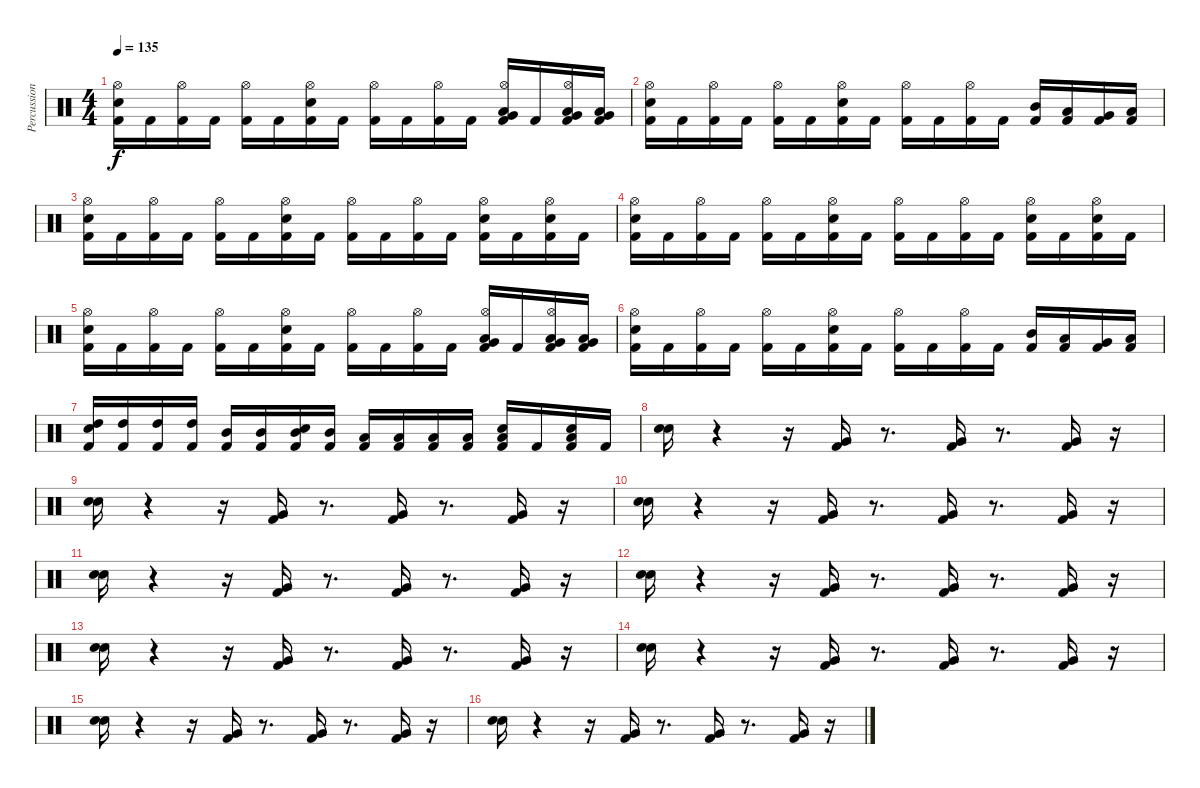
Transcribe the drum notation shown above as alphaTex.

\track ("Percussion" "Percussion") {instrument percussion}
\staff {score}
\articulation defaults
\ts (4 4)
\tempo 135
\clef neutral
\ks c
("Kick (hit) 2" "Electric Snare (hit)" "Hi-Hat (open)").16{dy f} "Kick (hit) 2".16 ("Kick (hit) 2" "Hi-Hat (open)").16 "Kick (hit) 2".16 ("Kick (hit) 2" "Hi-Hat (open)").16 "Kick (hit) 2".16 ("Kick (hit) 2" "Electric Snare (hit)" "Hi-Hat (open)").16 "Kick (hit) 2".16 ("Kick (hit) 2" "Hi-Hat (open)").16 "Kick (hit) 2".16 ("Kick (hit) 2" "Hi-Hat (open)").16 "Kick (hit) 2".16 ("Kick (hit) 2" "Low Floor Tom (hit)" "Very Low Tom (hit)" "Hi-Hat (open)").16 "Kick (hit) 2".16 ("Kick (hit) 2" "Low Floor Tom (hit)" "Very Low Tom (hit)" "Hi-Hat (open)").16 ("Kick (hit) 2" "Low Floor Tom (hit)" "Very Low Tom (hit)").16 |
("Kick (hit) 2" "Electric Snare (hit)" "Hi-Hat (open)").16 "Kick (hit) 2".16 ("Kick (hit) 2" "Hi-Hat (open)").16 "Kick (hit) 2".16 ("Kick (hit) 2" "Hi-Hat (open)").16 "Kick (hit) 2".16 ("Kick (hit) 2" "Electric Snare (hit)" "Hi-Hat (open)").16 "Kick (hit) 2".16 ("Kick (hit) 2" "Hi-Hat (open)").16 "Kick (hit) 2".16 ("Kick (hit) 2" "Hi-Hat (open)").16 "Kick (hit) 2".16 ("Kick (hit) 2" "Mid Tom (hit)").16 ("Kick (hit) 2" "Low Tom (hit)").16 ("Kick (hit) 2" "Very Low Tom (hit)").16 ("Kick (hit) 2" "Low Floor Tom (hit)").16 |
("Kick (hit) 2" "Electric Snare (hit)" "Hi-Hat (open)").16 "Kick (hit) 2".16 ("Kick (hit) 2" "Hi-Hat (open)").16 "Kick (hit) 2".16 ("Kick (hit) 2" "Hi-Hat (open)").16 "Kick (hit) 2".16 ("Kick (hit) 2" "Electric Snare (hit)" "Hi-Hat (open)").16 "Kick (hit) 2".16 ("Kick (hit) 2" "Hi-Hat (open)").16 "Kick (hit) 2".16 ("Kick (hit) 2" "Hi-Hat (open)").16 "Kick (hit) 2".16 ("Kick (hit) 2" "Electric Snare (hit)" "Hi-Hat (open)").16 "Kick (hit) 2".16 ("Kick (hit) 2" "Electric Snare (hit)" "Hi-Hat (open)").16 "Kick (hit) 2".16 |
("Kick (hit) 2" "Electric Snare (hit)" "Hi-Hat (open)").16 "Kick (hit) 2".16 ("Kick (hit) 2" "Hi-Hat (open)").16 "Kick (hit) 2".16 ("Kick (hit) 2" "Hi-Hat (open)").16 "Kick (hit) 2".16 ("Kick (hit) 2" "Electric Snare (hit)" "Hi-Hat (open)").16 "Kick (hit) 2".16 ("Kick (hit) 2" "Hi-Hat (open)").16 "Kick (hit) 2".16 ("Kick (hit) 2" "Hi-Hat (open)").16 "Kick (hit) 2".16 ("Kick (hit) 2" "Electric Snare (hit)" "Hi-Hat (open)").16 "Kick (hit) 2".16 ("Kick (hit) 2" "Electric Snare (hit)" "Hi-Hat (open)").16 "Kick (hit) 2".16 |
("Kick (hit) 2" "Electric Snare (hit)" "Hi-Hat (open)").16 "Kick (hit) 2".16 ("Kick (hit) 2" "Hi-Hat (open)").16 "Kick (hit) 2".16 ("Kick (hit) 2" "Hi-Hat (open)").16 "Kick (hit) 2".16 ("Kick (hit) 2" "Electric Snare (hit)" "Hi-Hat (open)").16 "Kick (hit) 2".16 ("Kick (hit) 2" "Hi-Hat (open)").16 "Kick (hit) 2".16 ("Kick (hit) 2" "Hi-Hat (open)").16 "Kick (hit) 2".16 ("Kick (hit) 2" "Low Floor Tom (hit)" "Very Low Tom (hit)" "Hi-Hat (open)").16 "Kick (hit) 2".16 ("Kick (hit) 2" "Low Floor Tom (hit)" "Very Low Tom (hit)" "Hi-Hat (open)").16 ("Kick (hit) 2" "Low Floor Tom (hit)" "Very Low Tom (hit)").16 |
("Kick (hit) 2" "Electric Snare (hit)" "Hi-Hat (open)").16 "Kick (hit) 2".16 ("Kick (hit) 2" "Hi-Hat (open)").16 "Kick (hit) 2".16 ("Kick (hit) 2" "Hi-Hat (open)").16 "Kick (hit) 2".16 ("Kick (hit) 2" "Electric Snare (hit)" "Hi-Hat (open)").16 "Kick (hit) 2".16 ("Kick (hit) 2" "Hi-Hat (open)").16 "Kick (hit) 2".16 ("Kick (hit) 2" "Hi-Hat (open)").16 "Kick (hit) 2".16 ("Kick (hit) 2" "Mid Tom (hit)").16 ("Kick (hit) 2" "Low Tom (hit)").16 ("Kick (hit) 2" "Very Low Tom (hit)").16 ("Kick (hit) 2" "Low Floor Tom (hit)").16 |
("Kick (hit) 2" "Electric Snare (hit)" "High Tom (hit)").16 ("Kick (hit) 2" "High Tom (hit)").16 ("Kick (hit) 2" "High Tom (hit)").16 ("Kick (hit) 2" "High Tom (hit)").16 ("Kick (hit) 2" "Mid Tom (hit)").16 ("Kick (hit) 2" "Mid Tom (hit)").16 ("Kick (hit) 2" "Electric Snare (hit)" "Mid Tom (hit)").16 ("Kick (hit) 2" "Mid Tom (hit)").16 ("Kick (hit) 2" "Low Tom (hit)").16 ("Kick (hit) 2" "Low Tom (hit)").16 ("Kick (hit) 2" "Low Tom (hit)").16 ("Kick (hit) 2" "Low Tom (hit)").16 ("Kick (hit) 2" "Electric Snare (hit)" "Low Tom (hit)").16 "Kick (hit) 2".16 ("Kick (hit) 2" "Electric Snare (hit)" "Low Tom (hit)").16 "Kick (hit) 2".16 |
("Snare (hit) 2" "Electric Snare (hit)").16 r.4 r.16 ("Kick (hit) 2" "Very Low Tom (hit)").16 r.8{d} ("Kick (hit) 2" "Very Low Tom (hit)").16 r.8{d} ("Kick (hit) 2" "Very Low Tom (hit)").16 r.16 |
("Snare (hit) 2" "Electric Snare (hit)").16 r.4 r.16 ("Kick (hit) 2" "Very Low Tom (hit)").16 r.8{d} ("Kick (hit) 2" "Very Low Tom (hit)").16 r.8{d} ("Kick (hit) 2" "Very Low Tom (hit)").16 r.16 |
("Snare (hit) 2" "Electric Snare (hit)").16 r.4 r.16 ("Kick (hit) 2" "Very Low Tom (hit)").16 r.8{d} ("Kick (hit) 2" "Very Low Tom (hit)").16 r.8{d} ("Kick (hit) 2" "Very Low Tom (hit)").16 r.16 |
("Snare (hit) 2" "Electric Snare (hit)").16 r.4 r.16 ("Kick (hit) 2" "Very Low Tom (hit)").16 r.8{d} ("Kick (hit) 2" "Very Low Tom (hit)").16 r.8{d} ("Kick (hit) 2" "Very Low Tom (hit)").16 r.16 |
("Snare (hit) 2" "Electric Snare (hit)").16 r.4 r.16 ("Kick (hit) 2" "Very Low Tom (hit)").16 r.8{d} ("Kick (hit) 2" "Very Low Tom (hit)").16 r.8{d} ("Kick (hit) 2" "Very Low Tom (hit)").16 r.16 |
("Snare (hit) 2" "Electric Snare (hit)").16 r.4 r.16 ("Kick (hit) 2" "Very Low Tom (hit)").16 r.8{d} ("Kick (hit) 2" "Very Low Tom (hit)").16 r.8{d} ("Kick (hit) 2" "Very Low Tom (hit)").16 r.16 |
("Snare (hit) 2" "Electric Snare (hit)").16 r.4 r.16 ("Kick (hit) 2" "Very Low Tom (hit)").16 r.8{d} ("Kick (hit) 2" "Very Low Tom (hit)").16 r.8{d} ("Kick (hit) 2" "Very Low Tom (hit)").16 r.16 |
("Snare (hit) 2" "Electric Snare (hit)").16 r.4 r.16 ("Kick (hit) 2" "Very Low Tom (hit)").16 r.8{d} ("Kick (hit) 2" "Very Low Tom (hit)").16 r.8{d} ("Kick (hit) 2" "Very Low Tom (hit)").16 r.16 |
("Snare (hit) 2" "Electric Snare (hit)").16 r.4 r.16 ("Kick (hit) 2" "Very Low Tom (hit)").16 r.8{d} ("Kick (hit) 2" "Very Low Tom (hit)").16 r.8{d} ("Kick (hit) 2" "Very Low Tom (hit)").16 r.16
